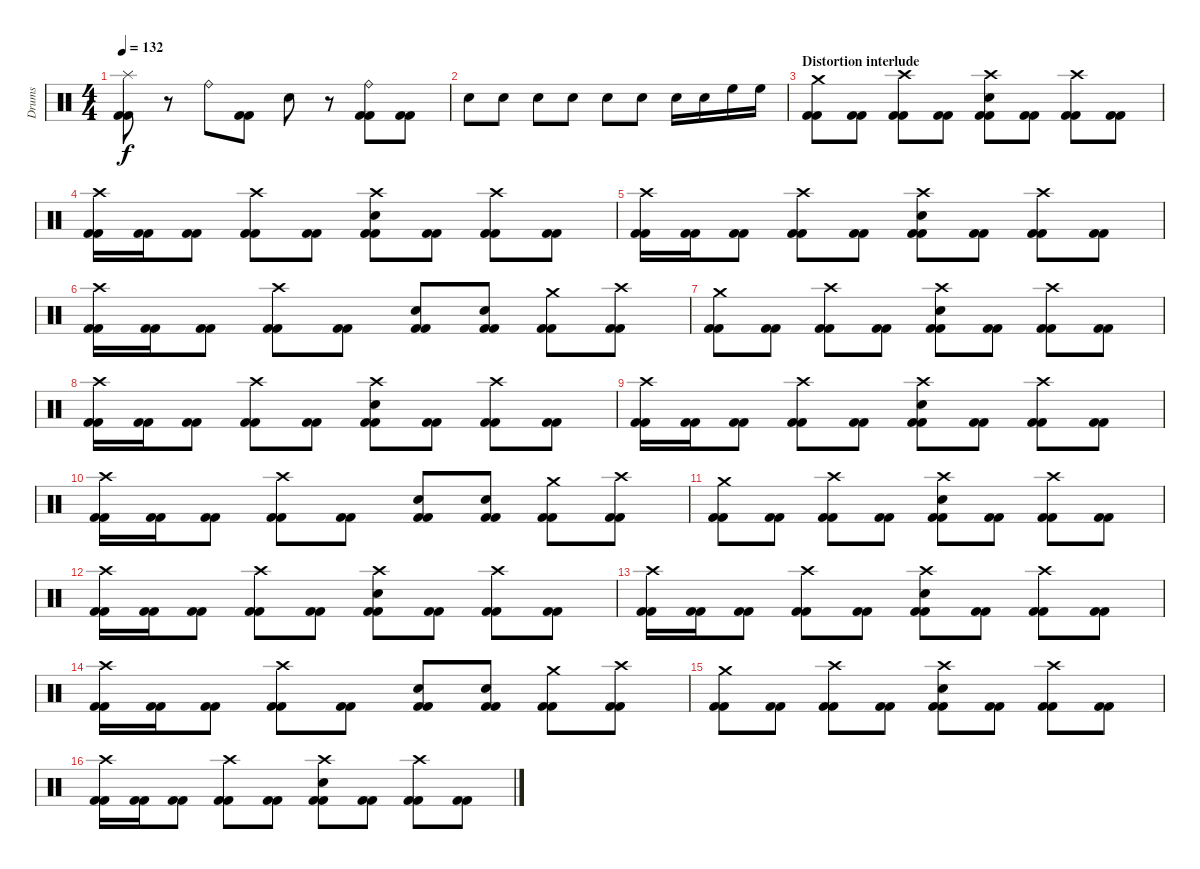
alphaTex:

\track ("Drums" "Drums") {instrument percussion}
\staff {score}
\articulation defaults
\ts (4 4)
\tempo 132
\clef neutral
\ks c
("Splash (hit)" "Kick (hit) 2" "Kick (hit) 2").8{dy f} r.8 "Ride (bell)".8 ("Kick (hit) 2" "Kick (hit) 2").8 "Electric Snare (hit)".8 r.8 ("Ride (bell)" "Kick (hit) 2" "Kick (hit) 2").8 ("Kick (hit) 2" "Kick (hit) 2").8 |
"Electric Snare (hit)".8 "Electric Snare (hit)".8 "Electric Snare (hit)".8 "Electric Snare (hit)".8 "Electric Snare (hit)".8 "Electric Snare (hit)".8 "Electric Snare (hit)".16 "Electric Snare (hit)".16 "High Floor Tom (hit)".16 "High Floor Tom (hit)".16 |
\section ("" "Distortion interlude")
("Crash medium (hit)" "Kick (hit) 2" "Kick (hit) 2").8 ("Kick (hit) 2" "Kick (hit) 2").8 ("Crash high (hit)" "Kick (hit) 2" "Kick (hit) 2").8 ("Kick (hit) 2" "Kick (hit) 2").8 ("Crash high (hit)" "Electric Snare (hit)" "Kick (hit) 2" "Kick (hit) 2").8 ("Kick (hit) 2" "Kick (hit) 2").8 ("Crash high (hit)" "Kick (hit) 2" "Kick (hit) 2").8 ("Kick (hit) 2" "Kick (hit) 2").8 |
("Crash high (hit)" "Kick (hit) 2" "Kick (hit) 2").16 ("Kick (hit) 2" "Kick (hit) 2").16 ("Kick (hit) 2" "Kick (hit) 2").8 ("Crash high (hit)" "Kick (hit) 2" "Kick (hit) 2").8 ("Kick (hit) 2" "Kick (hit) 2").8 ("Crash high (hit)" "Electric Snare (hit)" "Kick (hit) 2" "Kick (hit) 2").8 ("Kick (hit) 2" "Kick (hit) 2").8 ("Crash high (hit)" "Kick (hit) 2" "Kick (hit) 2").8 ("Kick (hit) 2" "Kick (hit) 2").8 |
("Crash high (hit)" "Kick (hit) 2" "Kick (hit) 2").16 ("Kick (hit) 2" "Kick (hit) 2").16 ("Kick (hit) 2" "Kick (hit) 2").8 ("Crash high (hit)" "Kick (hit) 2" "Kick (hit) 2").8 ("Kick (hit) 2" "Kick (hit) 2").8 ("Crash high (hit)" "Electric Snare (hit)" "Kick (hit) 2" "Kick (hit) 2").8 ("Kick (hit) 2" "Kick (hit) 2").8 ("Crash high (hit)" "Kick (hit) 2" "Kick (hit) 2").8 ("Kick (hit) 2" "Kick (hit) 2").8 |
("Crash high (hit)" "Kick (hit) 2" "Kick (hit) 2").16 ("Kick (hit) 2" "Kick (hit) 2").16 ("Kick (hit) 2" "Kick (hit) 2").8 ("Crash high (hit)" "Kick (hit) 2" "Kick (hit) 2").8 ("Kick (hit) 2" "Kick (hit) 2").8 ("Electric Snare (hit)" "Kick (hit) 2" "Kick (hit) 2").8 ("Electric Snare (hit)" "Kick (hit) 2" "Kick (hit) 2").8 ("Crash medium (hit)" "Kick (hit) 2" "Kick (hit) 2").8 ("Crash high (hit)" "Kick (hit) 2" "Kick (hit) 2").8 |
("Crash medium (hit)" "Kick (hit) 2" "Kick (hit) 2").8 ("Kick (hit) 2" "Kick (hit) 2").8 ("Crash high (hit)" "Kick (hit) 2" "Kick (hit) 2").8 ("Kick (hit) 2" "Kick (hit) 2").8 ("Crash high (hit)" "Electric Snare (hit)" "Kick (hit) 2" "Kick (hit) 2").8 ("Kick (hit) 2" "Kick (hit) 2").8 ("Crash high (hit)" "Kick (hit) 2" "Kick (hit) 2").8 ("Kick (hit) 2" "Kick (hit) 2").8 |
("Crash high (hit)" "Kick (hit) 2" "Kick (hit) 2").16 ("Kick (hit) 2" "Kick (hit) 2").16 ("Kick (hit) 2" "Kick (hit) 2").8 ("Crash high (hit)" "Kick (hit) 2" "Kick (hit) 2").8 ("Kick (hit) 2" "Kick (hit) 2").8 ("Crash high (hit)" "Electric Snare (hit)" "Kick (hit) 2" "Kick (hit) 2").8 ("Kick (hit) 2" "Kick (hit) 2").8 ("Crash high (hit)" "Kick (hit) 2" "Kick (hit) 2").8 ("Kick (hit) 2" "Kick (hit) 2").8 |
("Crash high (hit)" "Kick (hit) 2" "Kick (hit) 2").16 ("Kick (hit) 2" "Kick (hit) 2").16 ("Kick (hit) 2" "Kick (hit) 2").8 ("Crash high (hit)" "Kick (hit) 2" "Kick (hit) 2").8 ("Kick (hit) 2" "Kick (hit) 2").8 ("Crash high (hit)" "Electric Snare (hit)" "Kick (hit) 2" "Kick (hit) 2").8 ("Kick (hit) 2" "Kick (hit) 2").8 ("Crash high (hit)" "Kick (hit) 2" "Kick (hit) 2").8 ("Kick (hit) 2" "Kick (hit) 2").8 |
("Crash high (hit)" "Kick (hit) 2" "Kick (hit) 2").16 ("Kick (hit) 2" "Kick (hit) 2").16 ("Kick (hit) 2" "Kick (hit) 2").8 ("Crash high (hit)" "Kick (hit) 2" "Kick (hit) 2").8 ("Kick (hit) 2" "Kick (hit) 2").8 ("Electric Snare (hit)" "Kick (hit) 2" "Kick (hit) 2").8 ("Electric Snare (hit)" "Kick (hit) 2" "Kick (hit) 2").8 ("Crash medium (hit)" "Kick (hit) 2" "Kick (hit) 2").8 ("Crash high (hit)" "Kick (hit) 2" "Kick (hit) 2").8 |
("Crash medium (hit)" "Kick (hit) 2" "Kick (hit) 2").8 ("Kick (hit) 2" "Kick (hit) 2").8 ("Crash high (hit)" "Kick (hit) 2" "Kick (hit) 2").8 ("Kick (hit) 2" "Kick (hit) 2").8 ("Crash high (hit)" "Electric Snare (hit)" "Kick (hit) 2" "Kick (hit) 2").8 ("Kick (hit) 2" "Kick (hit) 2").8 ("Crash high (hit)" "Kick (hit) 2" "Kick (hit) 2").8 ("Kick (hit) 2" "Kick (hit) 2").8 |
("Crash high (hit)" "Kick (hit) 2" "Kick (hit) 2").16 ("Kick (hit) 2" "Kick (hit) 2").16 ("Kick (hit) 2" "Kick (hit) 2").8 ("Crash high (hit)" "Kick (hit) 2" "Kick (hit) 2").8 ("Kick (hit) 2" "Kick (hit) 2").8 ("Crash high (hit)" "Electric Snare (hit)" "Kick (hit) 2" "Kick (hit) 2").8 ("Kick (hit) 2" "Kick (hit) 2").8 ("Crash high (hit)" "Kick (hit) 2" "Kick (hit) 2").8 ("Kick (hit) 2" "Kick (hit) 2").8 |
("Crash high (hit)" "Kick (hit) 2" "Kick (hit) 2").16 ("Kick (hit) 2" "Kick (hit) 2").16 ("Kick (hit) 2" "Kick (hit) 2").8 ("Crash high (hit)" "Kick (hit) 2" "Kick (hit) 2").8 ("Kick (hit) 2" "Kick (hit) 2").8 ("Crash high (hit)" "Electric Snare (hit)" "Kick (hit) 2" "Kick (hit) 2").8 ("Kick (hit) 2" "Kick (hit) 2").8 ("Crash high (hit)" "Kick (hit) 2" "Kick (hit) 2").8 ("Kick (hit) 2" "Kick (hit) 2").8 |
("Crash high (hit)" "Kick (hit) 2" "Kick (hit) 2").16 ("Kick (hit) 2" "Kick (hit) 2").16 ("Kick (hit) 2" "Kick (hit) 2").8 ("Crash high (hit)" "Kick (hit) 2" "Kick (hit) 2").8 ("Kick (hit) 2" "Kick (hit) 2").8 ("Electric Snare (hit)" "Kick (hit) 2" "Kick (hit) 2").8 ("Electric Snare (hit)" "Kick (hit) 2" "Kick (hit) 2").8 ("Crash medium (hit)" "Kick (hit) 2" "Kick (hit) 2").8 ("Crash high (hit)" "Kick (hit) 2" "Kick (hit) 2").8 |
("Crash medium (hit)" "Kick (hit) 2" "Kick (hit) 2").8 ("Kick (hit) 2" "Kick (hit) 2").8 ("Crash high (hit)" "Kick (hit) 2" "Kick (hit) 2").8 ("Kick (hit) 2" "Kick (hit) 2").8 ("Crash high (hit)" "Electric Snare (hit)" "Kick (hit) 2" "Kick (hit) 2").8 ("Kick (hit) 2" "Kick (hit) 2").8 ("Crash high (hit)" "Kick (hit) 2" "Kick (hit) 2").8 ("Kick (hit) 2" "Kick (hit) 2").8 |
("Crash high (hit)" "Kick (hit) 2" "Kick (hit) 2").16 ("Kick (hit) 2" "Kick (hit) 2").16 ("Kick (hit) 2" "Kick (hit) 2").8 ("Crash high (hit)" "Kick (hit) 2" "Kick (hit) 2").8 ("Kick (hit) 2" "Kick (hit) 2").8 ("Crash high (hit)" "Electric Snare (hit)" "Kick (hit) 2" "Kick (hit) 2").8 ("Kick (hit) 2" "Kick (hit) 2").8 ("Crash high (hit)" "Kick (hit) 2" "Kick (hit) 2").8 ("Kick (hit) 2" "Kick (hit) 2").8
